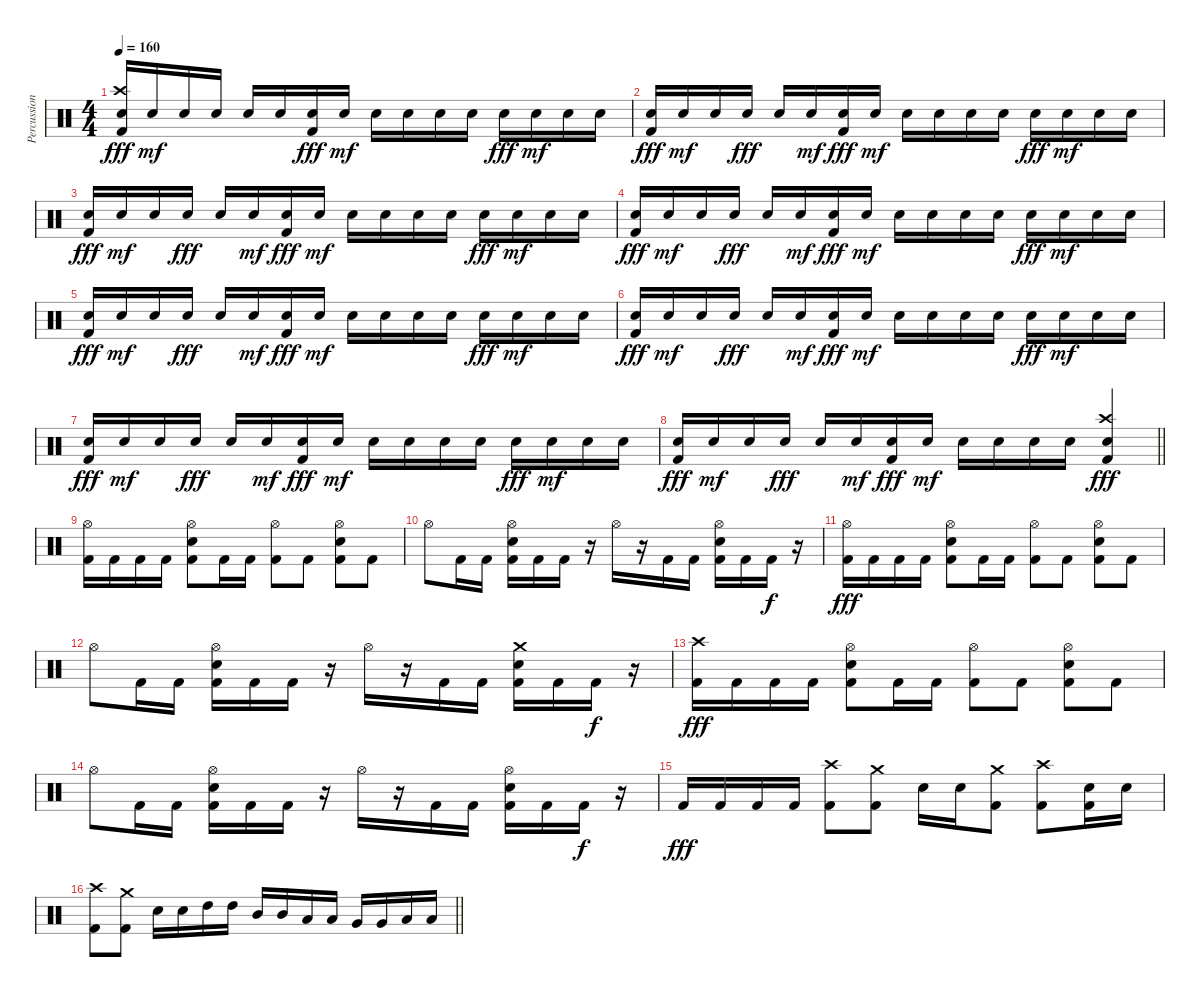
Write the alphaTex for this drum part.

\track ("Percussion" "Percussion") {instrument percussion}
\staff {score}
\articulation defaults
\ts (4 4)
\section ("" "")
\tempo 160
\clef neutral
\ks c
("Snare (hit) 2" "Crash high (hit)" "Kick (hit) 2").16{dy fff} "Snare (hit) 2".16{dy mf} "Snare (hit) 2".16 "Snare (hit) 2".16 "Snare (hit) 2".16 "Snare (hit) 2".16 ("Snare (hit) 2" "Kick (hit) 2").16{dy fff} "Snare (hit) 2".16{dy mf} "Snare (hit) 2".16 "Snare (hit) 2".16 "Snare (hit) 2".16 "Snare (hit) 2".16 "Snare (hit) 2".16{dy fff} "Snare (hit) 2".16{dy mf} "Snare (hit) 2".16 "Snare (hit) 2".16 |
("Snare (hit) 2" "Kick (hit) 2").16{dy fff} "Snare (hit) 2".16{dy mf} "Snare (hit) 2".16 "Snare (hit) 2".16{dy fff} "Snare (hit) 2".16 "Snare (hit) 2".16{dy mf} ("Snare (hit) 2" "Kick (hit) 2").16{dy fff} "Snare (hit) 2".16{dy mf} "Snare (hit) 2".16 "Snare (hit) 2".16 "Snare (hit) 2".16 "Snare (hit) 2".16 "Snare (hit) 2".16{dy fff} "Snare (hit) 2".16{dy mf} "Snare (hit) 2".16 "Snare (hit) 2".16 |
("Snare (hit) 2" "Kick (hit) 2").16{dy fff} "Snare (hit) 2".16{dy mf} "Snare (hit) 2".16 "Snare (hit) 2".16{dy fff} "Snare (hit) 2".16 "Snare (hit) 2".16{dy mf} ("Snare (hit) 2" "Kick (hit) 2").16{dy fff} "Snare (hit) 2".16{dy mf} "Snare (hit) 2".16 "Snare (hit) 2".16 "Snare (hit) 2".16 "Snare (hit) 2".16 "Snare (hit) 2".16{dy fff} "Snare (hit) 2".16{dy mf} "Snare (hit) 2".16 "Snare (hit) 2".16 |
("Snare (hit) 2" "Kick (hit) 2").16{dy fff} "Snare (hit) 2".16{dy mf} "Snare (hit) 2".16 "Snare (hit) 2".16{dy fff} "Snare (hit) 2".16 "Snare (hit) 2".16{dy mf} ("Snare (hit) 2" "Kick (hit) 2").16{dy fff} "Snare (hit) 2".16{dy mf} "Snare (hit) 2".16 "Snare (hit) 2".16 "Snare (hit) 2".16 "Snare (hit) 2".16 "Snare (hit) 2".16{dy fff} "Snare (hit) 2".16{dy mf} "Snare (hit) 2".16 "Snare (hit) 2".16 |
("Snare (hit) 2" "Kick (hit) 2").16{dy fff} "Snare (hit) 2".16{dy mf} "Snare (hit) 2".16 "Snare (hit) 2".16{dy fff} "Snare (hit) 2".16 "Snare (hit) 2".16{dy mf} ("Snare (hit) 2" "Kick (hit) 2").16{dy fff} "Snare (hit) 2".16{dy mf} "Snare (hit) 2".16 "Snare (hit) 2".16 "Snare (hit) 2".16 "Snare (hit) 2".16 "Snare (hit) 2".16{dy fff} "Snare (hit) 2".16{dy mf} "Snare (hit) 2".16 "Snare (hit) 2".16 |
("Snare (hit) 2" "Kick (hit) 2").16{dy fff} "Snare (hit) 2".16{dy mf} "Snare (hit) 2".16 "Snare (hit) 2".16{dy fff} "Snare (hit) 2".16 "Snare (hit) 2".16{dy mf} ("Snare (hit) 2" "Kick (hit) 2").16{dy fff} "Snare (hit) 2".16{dy mf} "Snare (hit) 2".16 "Snare (hit) 2".16 "Snare (hit) 2".16 "Snare (hit) 2".16 "Snare (hit) 2".16{dy fff} "Snare (hit) 2".16{dy mf} "Snare (hit) 2".16 "Snare (hit) 2".16 |
("Snare (hit) 2" "Kick (hit) 2").16{dy fff} "Snare (hit) 2".16{dy mf} "Snare (hit) 2".16 "Snare (hit) 2".16{dy fff} "Snare (hit) 2".16 "Snare (hit) 2".16{dy mf} ("Snare (hit) 2" "Kick (hit) 2").16{dy fff} "Snare (hit) 2".16{dy mf} "Snare (hit) 2".16 "Snare (hit) 2".16 "Snare (hit) 2".16 "Snare (hit) 2".16 "Snare (hit) 2".16{dy fff} "Snare (hit) 2".16{dy mf} "Snare (hit) 2".16 "Snare (hit) 2".16 |
\barLineRight lightlight
("Snare (hit) 2" "Kick (hit) 2").16{dy fff} "Snare (hit) 2".16{dy mf} "Snare (hit) 2".16 "Snare (hit) 2".16{dy fff} "Snare (hit) 2".16 "Snare (hit) 2".16{dy mf} ("Snare (hit) 2" "Kick (hit) 2").16{dy fff} "Snare (hit) 2".16{dy mf} "Snare (hit) 2".16 "Snare (hit) 2".16 "Snare (hit) 2".16 "Snare (hit) 2".16 ("Crash high (hit)" "Kick (hit) 2" "Snare (hit) 2").4{dy fff} |
\section ("" "")
("Hi-Hat (open)" "Kick (hit) 2").16 "Kick (hit) 2".16 "Kick (hit) 2".16 "Kick (hit) 2".16 ("Hi-Hat (open)" "Snare (hit) 2" "Kick (hit) 2").8 "Kick (hit) 2".16 "Kick (hit) 2".16 ("Hi-Hat (open)" "Kick (hit) 2").8 "Kick (hit) 2".8 ("Hi-Hat (open)" "Snare (hit) 2" "Kick (hit) 2").8 "Kick (hit) 2".8 |
"Hi-Hat (open)".8 "Kick (hit) 2".16 "Kick (hit) 2".16 ("Hi-Hat (open)" "Snare (hit) 2" "Kick (hit) 2").16 "Kick (hit) 2".16 "Kick (hit) 2".16 r.16 "Hi-Hat (open)".16 r.16 "Kick (hit) 2".16 "Kick (hit) 2".16 ("Hi-Hat (open)" "Snare (hit) 2" "Kick (hit) 2").16 "Kick (hit) 2".16 "Kick (hit) 2".16{dy f} r.16 |
("Hi-Hat (open)" "Kick (hit) 2").16{dy fff} "Kick (hit) 2".16 "Kick (hit) 2".16 "Kick (hit) 2".16 ("Hi-Hat (open)" "Snare (hit) 2" "Kick (hit) 2").8 "Kick (hit) 2".16 "Kick (hit) 2".16 ("Hi-Hat (open)" "Kick (hit) 2").8 "Kick (hit) 2".8 ("Hi-Hat (open)" "Snare (hit) 2" "Kick (hit) 2").8 "Kick (hit) 2".8 |
"Hi-Hat (open)".8 "Kick (hit) 2".16 "Kick (hit) 2".16 ("Hi-Hat (open)" "Snare (hit) 2" "Kick (hit) 2").16 "Kick (hit) 2".16 "Kick (hit) 2".16 r.16 "Hi-Hat (open)".16 r.16 "Kick (hit) 2".16 "Kick (hit) 2".16 ("Crash medium (hit)" "Snare (hit) 2" "Kick (hit) 2").16 "Kick (hit) 2".16 "Kick (hit) 2".16{dy f} r.16 |
("Crash high (hit)" "Kick (hit) 2").16{dy fff} "Kick (hit) 2".16 "Kick (hit) 2".16 "Kick (hit) 2".16 ("Hi-Hat (open)" "Snare (hit) 2" "Kick (hit) 2").8 "Kick (hit) 2".16 "Kick (hit) 2".16 ("Hi-Hat (open)" "Kick (hit) 2").8 "Kick (hit) 2".8 ("Hi-Hat (open)" "Snare (hit) 2" "Kick (hit) 2").8 "Kick (hit) 2".8 |
"Hi-Hat (open)".8 "Kick (hit) 2".16 "Kick (hit) 2".16 ("Hi-Hat (open)" "Snare (hit) 2" "Kick (hit) 2").16 "Kick (hit) 2".16 "Kick (hit) 2".16 r.16 "Hi-Hat (open)".16 r.16 "Kick (hit) 2".16 "Kick (hit) 2".16 ("Hi-Hat (open)" "Snare (hit) 2" "Kick (hit) 2").16 "Kick (hit) 2".16 "Kick (hit) 2".16{dy f} r.16 |
"Kick (hit) 2".16{dy fff} "Kick (hit) 2".16 "Kick (hit) 2".16 "Kick (hit) 2".16 ("Crash high (hit)" "Kick (hit) 2").8 ("Crash medium (hit)" "Kick (hit) 2").8 "Snare (hit) 2".16 "Snare (hit) 2".16 ("Crash medium (hit)" "Kick (hit) 2").8 ("Crash high (hit)" "Kick (hit) 2").8 ("Kick (hit) 2" "Snare (hit) 2").16 "Snare (hit) 2".16 |
\barLineRight lightlight
("Crash high (hit)" "Kick (hit) 2").8 ("Crash medium (hit)" "Kick (hit) 2").8 "Snare (hit) 2".16 "Snare (hit) 2".16 "High Tom (hit)".16 "High Tom (hit)".16 "Mid Tom (hit)".16 "Mid Tom (hit)".16 "Low Tom (hit)".16 "Low Tom (hit)".16 "Very Low Tom (hit)".16 "Very Low Tom (hit)".16 "Low Floor Tom (hit)".16 "Low Floor Tom (hit)".16
